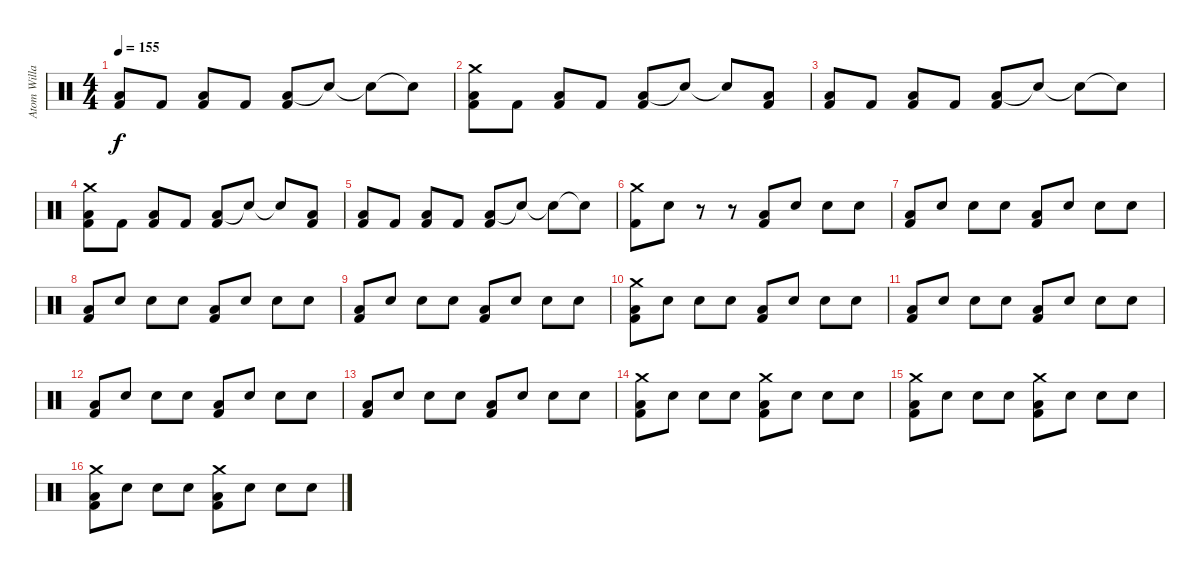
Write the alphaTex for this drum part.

\track ("Atom Willard Drums" "Atom Willa") {instrument percussion}
\staff {score}
\articulation defaults
\ts (4 4)
\tempo 155
\clef neutral
\ks c
("Low Tom (hit)" "Kick (hit) 2").8{dy f} "Kick (hit) 2".8 ("Low Tom (hit)" "Kick (hit) 2").8 "Kick (hit) 2".8 ("Low Tom (hit)" "Kick (hit) 2").8 "Snare (hit)"{t}.8 "Snare (hit)"{t}.8 "Snare (hit)"{t}.8 |
("Crash medium (hit)" "Low Tom (hit)" "Kick (hit) 2").8 "Kick (hit) 2".8 ("Low Tom (hit)" "Kick (hit) 2").8 "Kick (hit) 2".8 ("Low Tom (hit)" "Kick (hit) 2").8 "Snare (hit)"{t}.8 "Snare (hit)"{t}.8 ("Low Tom (hit)" "Kick (hit) 2").8 |
("Low Tom (hit)" "Kick (hit) 2").8 "Kick (hit) 2".8 ("Low Tom (hit)" "Kick (hit) 2").8 "Kick (hit) 2".8 ("Low Tom (hit)" "Kick (hit) 2").8 "Snare (hit)"{t}.8 "Snare (hit)"{t}.8 "Snare (hit)"{t}.8 |
("Crash medium (hit)" "Low Tom (hit)" "Kick (hit) 2").8 "Kick (hit) 2".8 ("Low Tom (hit)" "Kick (hit) 2").8 "Kick (hit) 2".8 ("Low Tom (hit)" "Kick (hit) 2").8 "Snare (hit)"{t}.8 "Snare (hit)"{t}.8 ("Low Tom (hit)" "Kick (hit) 2").8 |
("Low Tom (hit)" "Kick (hit) 2").8 "Kick (hit) 2".8 ("Low Tom (hit)" "Kick (hit) 2").8 "Kick (hit) 2".8 ("Low Tom (hit)" "Kick (hit) 2").8 "Snare (hit)"{t}.8 "Snare (hit)"{t}.8 "Snare (hit)"{t}.8 |
("Crash medium (hit)" "Kick (hit) 2").8 "Snare (hit)".8 r.8 r.8 ("Kick (hit) 2" "Low Tom (hit)").8 "Snare (hit)".8 "Snare (hit)".8 "Snare (hit)".8 |
("Kick (hit) 2" "Low Tom (hit)").8 "Snare (hit)".8 "Snare (hit)".8 "Snare (hit)".8 ("Kick (hit) 2" "Low Tom (hit)").8 "Snare (hit)".8 "Snare (hit)".8 "Snare (hit)".8 |
("Kick (hit) 2" "Low Tom (hit)").8 "Snare (hit)".8 "Snare (hit)".8 "Snare (hit)".8 ("Kick (hit) 2" "Low Tom (hit)").8 "Snare (hit)".8 "Snare (hit)".8 "Snare (hit)".8 |
("Kick (hit) 2" "Low Tom (hit)").8 "Snare (hit)".8 "Snare (hit)".8 "Snare (hit)".8 ("Kick (hit) 2" "Low Tom (hit)").8 "Snare (hit)".8 "Snare (hit)".8 "Snare (hit)".8 |
("Crash medium (hit)" "Kick (hit) 2" "Low Tom (hit)").8 "Snare (hit)".8 "Snare (hit)".8 "Snare (hit)".8 ("Kick (hit) 2" "Low Tom (hit)").8 "Snare (hit)".8 "Snare (hit)".8 "Snare (hit)".8 |
("Kick (hit) 2" "Low Tom (hit)").8 "Snare (hit)".8 "Snare (hit)".8 "Snare (hit)".8 ("Kick (hit) 2" "Low Tom (hit)").8 "Snare (hit)".8 "Snare (hit)".8 "Snare (hit)".8 |
("Kick (hit) 2" "Low Tom (hit)").8 "Snare (hit)".8 "Snare (hit)".8 "Snare (hit)".8 ("Kick (hit) 2" "Low Tom (hit)").8 "Snare (hit)".8 "Snare (hit)".8 "Snare (hit)".8 |
("Kick (hit) 2" "Low Tom (hit)").8 "Snare (hit)".8 "Snare (hit)".8 "Snare (hit)".8 ("Kick (hit) 2" "Low Tom (hit)").8 "Snare (hit)".8 "Snare (hit)".8 "Snare (hit)".8 |
("Crash medium (hit)" "Kick (hit) 2" "Low Tom (hit)").8 "Snare (hit)".8 "Snare (hit)".8 "Snare (hit)".8 ("Crash medium (hit)" "Kick (hit) 2" "Low Tom (hit)").8 "Snare (hit)".8 "Snare (hit)".8 "Snare (hit)".8 |
("Crash medium (hit)" "Kick (hit) 2" "Low Tom (hit)").8 "Snare (hit)".8 "Snare (hit)".8 "Snare (hit)".8 ("Crash medium (hit)" "Kick (hit) 2" "Low Tom (hit)").8 "Snare (hit)".8 "Snare (hit)".8 "Snare (hit)".8 |
("Crash medium (hit)" "Kick (hit) 2" "Low Tom (hit)").8 "Snare (hit)".8 "Snare (hit)".8 "Snare (hit)".8 ("Crash medium (hit)" "Kick (hit) 2" "Low Tom (hit)").8 "Snare (hit)".8 "Snare (hit)".8 "Snare (hit)".8
